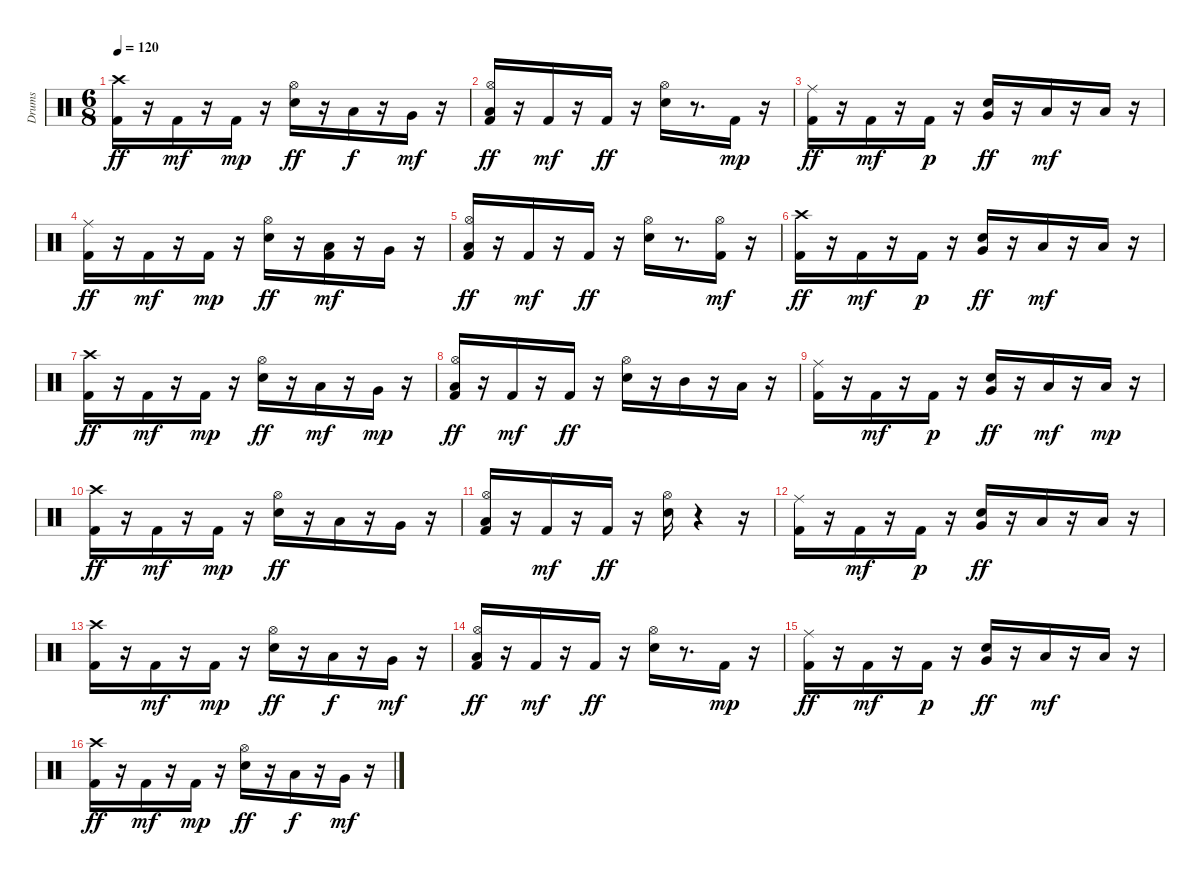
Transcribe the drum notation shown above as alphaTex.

\track ("Drums" "Drums") {instrument percussion}
\staff {score}
\articulation defaults
\ts (6 8)
\tempo 120
\clef neutral
\ks c
("Crash high (hit)" "Kick (hit) 2").16{dy ff} r.16 "Kick (hit) 2".16{dy mf} r.16 "Kick (hit) 2".16{dy mp} r.16 ("Hi-Hat (open)" "Snare (hit) 2").16{dy ff} r.16 "Low Tom (hit)".16{dy f} r.16 "Very Low Tom (hit)".16{dy mf} r.16 |
("Hi-Hat (open)" "Low Floor Tom (hit)" "Kick (hit) 2").16{dy ff} r.16 "Kick (hit) 2".16{dy mf} r.16 "Kick (hit) 2".16{dy ff} r.16 ("Hi-Hat (open)" "Snare (hit) 2").16 r.8{d} "Kick (hit) 2".16{dy mp} r.16 |
("Ride (middle)" "Kick (hit) 2").16{dy ff} r.16 "Kick (hit) 2".16{dy mf} r.16 "Kick (hit) 2".16{dy p} r.16 ("Very Low Tom (hit)" "Snare (hit) 2").16{dy ff} r.16 "Low Floor Tom (hit)".16{dy mf} r.16 "Low Floor Tom (hit)".16 r.16 |
("Ride (middle)" "Kick (hit) 2").16{dy ff} r.16 "Kick (hit) 2".16{dy mf} r.16 "Kick (hit) 2".16{dy mp} r.16 ("Hi-Hat (open)" "Snare (hit) 2").16{dy ff} r.16 ("Kick (hit) 2" "Low Tom (hit)").16{dy mf} r.16 "Very Low Tom (hit)".16 r.16 |
("Hi-Hat (open)" "Low Floor Tom (hit)" "Kick (hit) 2").16{dy ff} r.16 "Kick (hit) 2".16{dy mf} r.16 "Kick (hit) 2".16{dy ff} r.16 ("Hi-Hat (open)" "Snare (hit) 2").16 r.8{d} ("Hi-Hat (open)" "Kick (hit) 2").16{dy mf} r.16 |
("Crash high (hit)" "Kick (hit) 2").16{dy ff} r.16 "Kick (hit) 2".16{dy mf} r.16 "Kick (hit) 2".16{dy p} r.16 ("Very Low Tom (hit)" "Snare (hit) 2").16{dy ff} r.16 "Low Floor Tom (hit)".16{dy mf} r.16 "Low Floor Tom (hit)".16 r.16 |
("Crash high (hit)" "Kick (hit) 2").16{dy ff} r.16 "Kick (hit) 2".16{dy mf} r.16 "Kick (hit) 2".16{dy mp} r.16 ("Hi-Hat (open)" "Snare (hit) 2").16{dy ff} r.16 "Low Tom (hit)".16{dy mf} r.16 "Very Low Tom (hit)".16{dy mp} r.16 |
("Hi-Hat (open)" "Low Floor Tom (hit)" "Kick (hit) 2").16{dy ff} r.16 "Kick (hit) 2".16{dy mf} r.16 "Kick (hit) 2".16{dy ff} r.16 ("Hi-Hat (open)" "Snare (hit) 2").16 r.16 "Mid Tom (hit)".16 r.16 "Low Tom (hit)".16 r.16 |
("Ride (middle)" "Kick (hit) 2").16 r.16 "Kick (hit) 2".16{dy mf} r.16 "Kick (hit) 2".16{dy p} r.16 ("Very Low Tom (hit)" "Snare (hit) 2").16{dy ff} r.16 "Low Floor Tom (hit)".16{dy mf} r.16 "Low Floor Tom (hit)".16{dy mp} r.16 |
("Crash high (hit)" "Kick (hit) 2").16{dy ff} r.16 "Kick (hit) 2".16{dy mf} r.16 "Kick (hit) 2".16{dy mp} r.16 ("Hi-Hat (open)" "Snare (hit) 2").16{dy ff} r.16 "Low Tom (hit)".16 r.16 "Very Low Tom (hit)".16 r.16 |
("Hi-Hat (open)" "Low Floor Tom (hit)" "Kick (hit) 2").16 r.16 "Kick (hit) 2".16{dy mf} r.16 "Kick (hit) 2".16{dy ff} r.16 ("Hi-Hat (open)" "Snare (hit) 2").16 r.4 r.16 |
("Ride (middle)" "Kick (hit) 2").16 r.16 "Kick (hit) 2".16{dy mf} r.16 "Kick (hit) 2".16{dy p} r.16 ("Very Low Tom (hit)" "Snare (hit) 2").16{dy ff} r.16 "Low Floor Tom (hit)".16 r.16 "Low Floor Tom (hit)".16 r.16 |
("Crash high (hit)" "Kick (hit) 2").16 r.16 "Kick (hit) 2".16{dy mf} r.16 "Kick (hit) 2".16{dy mp} r.16 ("Hi-Hat (open)" "Snare (hit) 2").16{dy ff} r.16 "Low Tom (hit)".16{dy f} r.16 "Very Low Tom (hit)".16{dy mf} r.16 |
("Hi-Hat (open)" "Low Floor Tom (hit)" "Kick (hit) 2").16{dy ff} r.16 "Kick (hit) 2".16{dy mf} r.16 "Kick (hit) 2".16{dy ff} r.16 ("Hi-Hat (open)" "Snare (hit) 2").16 r.8{d} "Kick (hit) 2".16{dy mp} r.16 |
("Ride (middle)" "Kick (hit) 2").16{dy ff} r.16 "Kick (hit) 2".16{dy mf} r.16 "Kick (hit) 2".16{dy p} r.16 ("Very Low Tom (hit)" "Snare (hit) 2").16{dy ff} r.16 "Low Floor Tom (hit)".16{dy mf} r.16 "Low Floor Tom (hit)".16 r.16 |
("Crash high (hit)" "Kick (hit) 2").16{dy ff} r.16 "Kick (hit) 2".16{dy mf} r.16 "Kick (hit) 2".16{dy mp} r.16 ("Hi-Hat (open)" "Snare (hit) 2").16{dy ff} r.16 "Low Tom (hit)".16{dy f} r.16 "Very Low Tom (hit)".16{dy mf} r.16
